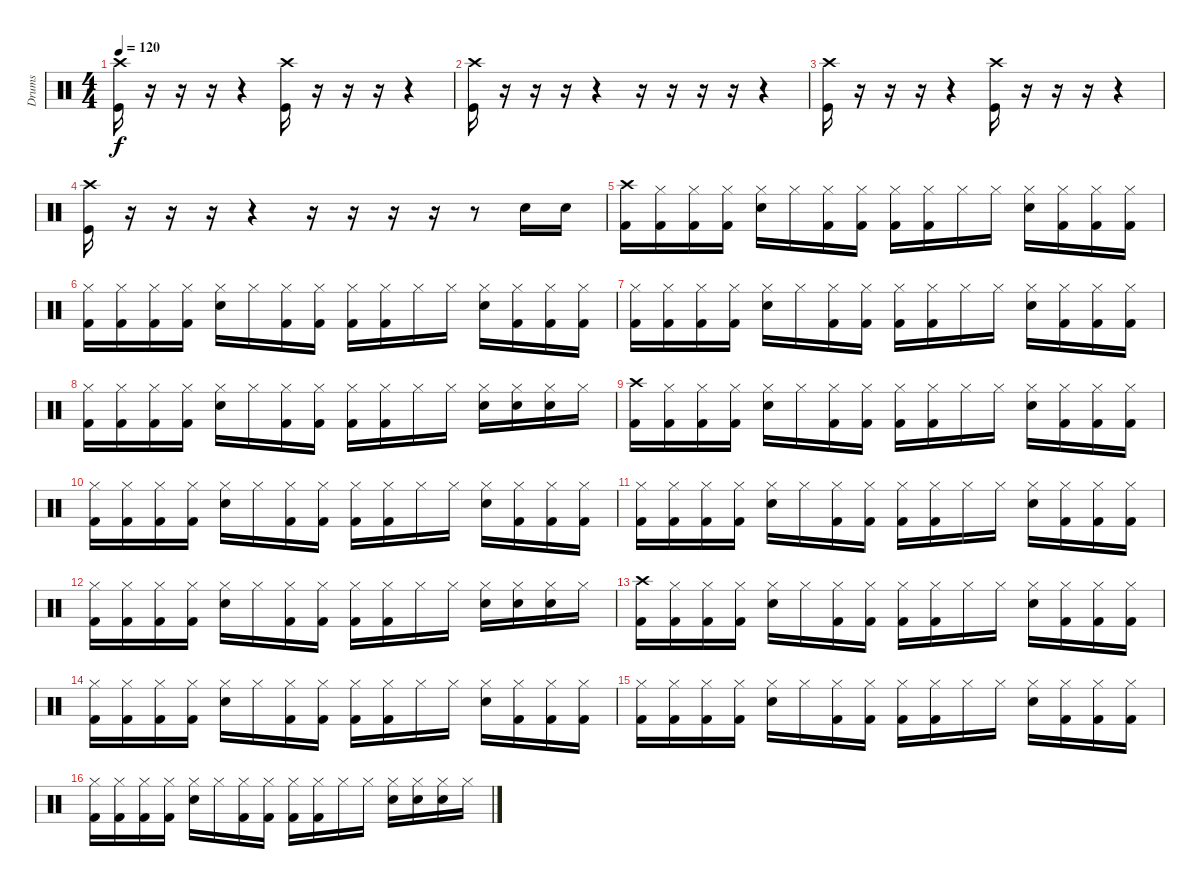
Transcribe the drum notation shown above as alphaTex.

\track ("Drums" "Drums") {instrument percussion}
\staff {score}
\articulation defaults
\ts (4 4)
\tempo 120
\clef neutral
\ks c
("Crash high (hit)" "Kick (hit)").16{dy f} r.16 r.16 r.16 r.4 ("Crash high (hit)" "Kick (hit)").16 r.16 r.16 r.16 r.4 |
("Crash high (hit)" "Kick (hit)").16 r.16 r.16 r.16 r.4 r.16 r.16 r.16 r.16 r.4 |
("Crash high (hit)" "Kick (hit)").16 r.16 r.16 r.16 r.4 ("Crash high (hit)" "Kick (hit)").16 r.16 r.16 r.16 r.4 |
("Crash high (hit)" "Kick (hit)").16 r.16 r.16 r.16 r.4 r.16 r.16 r.16 r.16 r.8 "Snare (hit) 2".16 "Snare (hit) 2".16 |
("Crash high (hit)" "Kick (hit) 2").16 ("Hi-Hat (closed)" "Kick (hit) 2").16 ("Hi-Hat (closed)" "Kick (hit) 2").16 ("Hi-Hat (closed)" "Kick (hit) 2").16 ("Hi-Hat (closed)" "Electric Snare (hit)").16 "Hi-Hat (closed)".16 ("Hi-Hat (closed)" "Kick (hit) 2").16 ("Hi-Hat (closed)" "Kick (hit) 2").16 ("Hi-Hat (closed)" "Kick (hit) 2").16 ("Hi-Hat (closed)" "Kick (hit) 2").16 "Hi-Hat (closed)".16 "Hi-Hat (closed)".16 ("Hi-Hat (closed)" "Electric Snare (hit)").16 ("Hi-Hat (closed)" "Kick (hit) 2").16 ("Hi-Hat (closed)" "Kick (hit) 2").16 ("Hi-Hat (closed)" "Kick (hit) 2").16 |
("Hi-Hat (closed)" "Kick (hit) 2").16 ("Hi-Hat (closed)" "Kick (hit) 2").16 ("Hi-Hat (closed)" "Kick (hit) 2").16 ("Hi-Hat (closed)" "Kick (hit) 2").16 ("Hi-Hat (closed)" "Electric Snare (hit)").16 "Hi-Hat (closed)".16 ("Hi-Hat (closed)" "Kick (hit) 2").16 ("Hi-Hat (closed)" "Kick (hit) 2").16 ("Hi-Hat (closed)" "Kick (hit) 2").16 ("Hi-Hat (closed)" "Kick (hit) 2").16 "Hi-Hat (closed)".16 "Hi-Hat (closed)".16 ("Hi-Hat (closed)" "Electric Snare (hit)").16 ("Hi-Hat (closed)" "Kick (hit) 2").16 ("Hi-Hat (closed)" "Kick (hit) 2").16 ("Hi-Hat (closed)" "Kick (hit) 2").16 |
("Hi-Hat (closed)" "Kick (hit) 2").16 ("Hi-Hat (closed)" "Kick (hit) 2").16 ("Hi-Hat (closed)" "Kick (hit) 2").16 ("Hi-Hat (closed)" "Kick (hit) 2").16 ("Hi-Hat (closed)" "Electric Snare (hit)").16 "Hi-Hat (closed)".16 ("Hi-Hat (closed)" "Kick (hit) 2").16 ("Hi-Hat (closed)" "Kick (hit) 2").16 ("Hi-Hat (closed)" "Kick (hit) 2").16 ("Hi-Hat (closed)" "Kick (hit) 2").16 "Hi-Hat (closed)".16 "Hi-Hat (closed)".16 ("Hi-Hat (closed)" "Electric Snare (hit)").16 ("Hi-Hat (closed)" "Kick (hit) 2").16 ("Hi-Hat (closed)" "Kick (hit) 2").16 ("Hi-Hat (closed)" "Kick (hit) 2").16 |
("Hi-Hat (closed)" "Kick (hit) 2").16 ("Hi-Hat (closed)" "Kick (hit) 2").16 ("Hi-Hat (closed)" "Kick (hit) 2").16 ("Hi-Hat (closed)" "Kick (hit) 2").16 ("Hi-Hat (closed)" "Electric Snare (hit)").16 "Hi-Hat (closed)".16 ("Hi-Hat (closed)" "Kick (hit) 2").16 ("Hi-Hat (closed)" "Kick (hit) 2").16 ("Hi-Hat (closed)" "Kick (hit) 2").16 ("Hi-Hat (closed)" "Kick (hit) 2").16 "Hi-Hat (closed)".16 "Hi-Hat (closed)".16 ("Hi-Hat (closed)" "Electric Snare (hit)").16 ("Hi-Hat (closed)" "Electric Snare (hit)").16 ("Hi-Hat (closed)" "Electric Snare (hit)").16 "Hi-Hat (closed)".16 |
("Crash high (hit)" "Kick (hit) 2").16 ("Hi-Hat (closed)" "Kick (hit) 2").16 ("Hi-Hat (closed)" "Kick (hit) 2").16 ("Hi-Hat (closed)" "Kick (hit) 2").16 ("Hi-Hat (closed)" "Electric Snare (hit)").16 "Hi-Hat (closed)".16 ("Hi-Hat (closed)" "Kick (hit) 2").16 ("Hi-Hat (closed)" "Kick (hit) 2").16 ("Hi-Hat (closed)" "Kick (hit) 2").16 ("Hi-Hat (closed)" "Kick (hit) 2").16 "Hi-Hat (closed)".16 "Hi-Hat (closed)".16 ("Hi-Hat (closed)" "Electric Snare (hit)").16 ("Hi-Hat (closed)" "Kick (hit) 2").16 ("Hi-Hat (closed)" "Kick (hit) 2").16 ("Hi-Hat (closed)" "Kick (hit) 2").16 |
("Hi-Hat (closed)" "Kick (hit) 2").16 ("Hi-Hat (closed)" "Kick (hit) 2").16 ("Hi-Hat (closed)" "Kick (hit) 2").16 ("Hi-Hat (closed)" "Kick (hit) 2").16 ("Hi-Hat (closed)" "Electric Snare (hit)").16 "Hi-Hat (closed)".16 ("Hi-Hat (closed)" "Kick (hit) 2").16 ("Hi-Hat (closed)" "Kick (hit) 2").16 ("Hi-Hat (closed)" "Kick (hit) 2").16 ("Hi-Hat (closed)" "Kick (hit) 2").16 "Hi-Hat (closed)".16 "Hi-Hat (closed)".16 ("Hi-Hat (closed)" "Electric Snare (hit)").16 ("Hi-Hat (closed)" "Kick (hit) 2").16 ("Hi-Hat (closed)" "Kick (hit) 2").16 ("Hi-Hat (closed)" "Kick (hit) 2").16 |
("Hi-Hat (closed)" "Kick (hit) 2").16 ("Hi-Hat (closed)" "Kick (hit) 2").16 ("Hi-Hat (closed)" "Kick (hit) 2").16 ("Hi-Hat (closed)" "Kick (hit) 2").16 ("Hi-Hat (closed)" "Electric Snare (hit)").16 "Hi-Hat (closed)".16 ("Hi-Hat (closed)" "Kick (hit) 2").16 ("Hi-Hat (closed)" "Kick (hit) 2").16 ("Hi-Hat (closed)" "Kick (hit) 2").16 ("Hi-Hat (closed)" "Kick (hit) 2").16 "Hi-Hat (closed)".16 "Hi-Hat (closed)".16 ("Hi-Hat (closed)" "Electric Snare (hit)").16 ("Hi-Hat (closed)" "Kick (hit) 2").16 ("Hi-Hat (closed)" "Kick (hit) 2").16 ("Hi-Hat (closed)" "Kick (hit) 2").16 |
("Hi-Hat (closed)" "Kick (hit) 2").16 ("Hi-Hat (closed)" "Kick (hit) 2").16 ("Hi-Hat (closed)" "Kick (hit) 2").16 ("Hi-Hat (closed)" "Kick (hit) 2").16 ("Hi-Hat (closed)" "Electric Snare (hit)").16 "Hi-Hat (closed)".16 ("Hi-Hat (closed)" "Kick (hit) 2").16 ("Hi-Hat (closed)" "Kick (hit) 2").16 ("Hi-Hat (closed)" "Kick (hit) 2").16 ("Hi-Hat (closed)" "Kick (hit) 2").16 "Hi-Hat (closed)".16 "Hi-Hat (closed)".16 ("Hi-Hat (closed)" "Electric Snare (hit)").16 ("Hi-Hat (closed)" "Electric Snare (hit)").16 ("Hi-Hat (closed)" "Electric Snare (hit)").16 "Hi-Hat (closed)".16 |
("Crash high (hit)" "Kick (hit) 2").16 ("Hi-Hat (closed)" "Kick (hit) 2").16 ("Hi-Hat (closed)" "Kick (hit) 2").16 ("Hi-Hat (closed)" "Kick (hit) 2").16 ("Hi-Hat (closed)" "Electric Snare (hit)").16 "Hi-Hat (closed)".16 ("Hi-Hat (closed)" "Kick (hit) 2").16 ("Hi-Hat (closed)" "Kick (hit) 2").16 ("Hi-Hat (closed)" "Kick (hit) 2").16 ("Hi-Hat (closed)" "Kick (hit) 2").16 "Hi-Hat (closed)".16 "Hi-Hat (closed)".16 ("Hi-Hat (closed)" "Electric Snare (hit)").16 ("Hi-Hat (closed)" "Kick (hit) 2").16 ("Hi-Hat (closed)" "Kick (hit) 2").16 ("Hi-Hat (closed)" "Kick (hit) 2").16 |
("Hi-Hat (closed)" "Kick (hit) 2").16 ("Hi-Hat (closed)" "Kick (hit) 2").16 ("Hi-Hat (closed)" "Kick (hit) 2").16 ("Hi-Hat (closed)" "Kick (hit) 2").16 ("Hi-Hat (closed)" "Electric Snare (hit)").16 "Hi-Hat (closed)".16 ("Hi-Hat (closed)" "Kick (hit) 2").16 ("Hi-Hat (closed)" "Kick (hit) 2").16 ("Hi-Hat (closed)" "Kick (hit) 2").16 ("Hi-Hat (closed)" "Kick (hit) 2").16 "Hi-Hat (closed)".16 "Hi-Hat (closed)".16 ("Hi-Hat (closed)" "Electric Snare (hit)").16 ("Hi-Hat (closed)" "Kick (hit) 2").16 ("Hi-Hat (closed)" "Kick (hit) 2").16 ("Hi-Hat (closed)" "Kick (hit) 2").16 |
("Hi-Hat (closed)" "Kick (hit) 2").16 ("Hi-Hat (closed)" "Kick (hit) 2").16 ("Hi-Hat (closed)" "Kick (hit) 2").16 ("Hi-Hat (closed)" "Kick (hit) 2").16 ("Hi-Hat (closed)" "Electric Snare (hit)").16 "Hi-Hat (closed)".16 ("Hi-Hat (closed)" "Kick (hit) 2").16 ("Hi-Hat (closed)" "Kick (hit) 2").16 ("Hi-Hat (closed)" "Kick (hit) 2").16 ("Hi-Hat (closed)" "Kick (hit) 2").16 "Hi-Hat (closed)".16 "Hi-Hat (closed)".16 ("Hi-Hat (closed)" "Electric Snare (hit)").16 ("Hi-Hat (closed)" "Kick (hit) 2").16 ("Hi-Hat (closed)" "Kick (hit) 2").16 ("Hi-Hat (closed)" "Kick (hit) 2").16 |
("Hi-Hat (closed)" "Kick (hit) 2").16 ("Hi-Hat (closed)" "Kick (hit) 2").16 ("Hi-Hat (closed)" "Kick (hit) 2").16 ("Hi-Hat (closed)" "Kick (hit) 2").16 ("Hi-Hat (closed)" "Electric Snare (hit)").16 "Hi-Hat (closed)".16 ("Hi-Hat (closed)" "Kick (hit) 2").16 ("Hi-Hat (closed)" "Kick (hit) 2").16 ("Hi-Hat (closed)" "Kick (hit) 2").16 ("Hi-Hat (closed)" "Kick (hit) 2").16 "Hi-Hat (closed)".16 "Hi-Hat (closed)".16 ("Hi-Hat (closed)" "Electric Snare (hit)").16 ("Hi-Hat (closed)" "Electric Snare (hit)").16 ("Hi-Hat (closed)" "Electric Snare (hit)").16 "Hi-Hat (closed)".16
